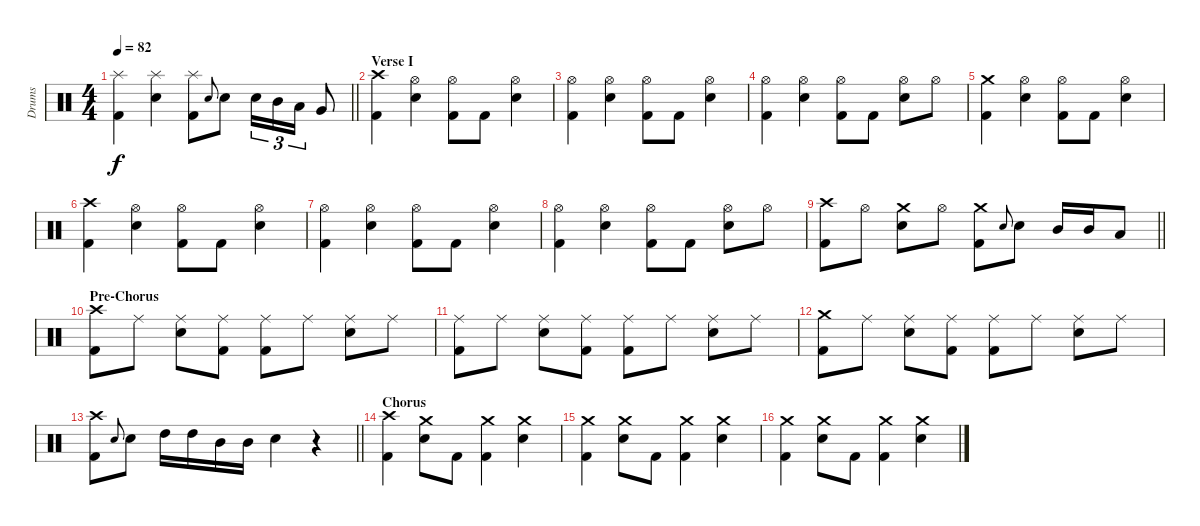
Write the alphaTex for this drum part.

\track ("Drums" "Drums") {instrument percussion}
\staff {score}
\articulation defaults
\ts (4 4)
\tempo 82
\clef neutral
\barLineRight lightlight
\ks c
("Splash (hit)" "Kick (hit) 2").4{dy f} ("Splash (hit)" "Snare (hit) 2").4 ("Splash (hit)" "Kick (hit) 2").8 "Snare (hit) 2".8{gr onbeat} "Snare (hit) 2".8 "Snare (hit) 2".16{tu (3 2)} "Mid Tom (hit)".16{tu (3 2)} "Low Tom (hit)".16{tu (3 2)} "Very Low Tom (hit)".8 |
\section ("" "Verse I")
("Crash high (hit)" "Kick (hit) 2").4 ("Hi-Hat (open)" "Snare (hit) 2").4 ("Hi-Hat (open)" "Kick (hit) 2").8 "Kick (hit) 2".8 ("Hi-Hat (open)" "Snare (hit) 2").4 |
("Hi-Hat (open)" "Kick (hit) 2").4 ("Hi-Hat (open)" "Snare (hit) 2").4 ("Hi-Hat (open)" "Kick (hit) 2").8 "Kick (hit) 2".8 ("Hi-Hat (open)" "Snare (hit) 2").4 |
("Hi-Hat (open)" "Kick (hit) 2").4 ("Hi-Hat (open)" "Snare (hit) 2").4 ("Hi-Hat (open)" "Kick (hit) 2").8 "Kick (hit) 2".8 ("Hi-Hat (open)" "Snare (hit) 2").8 "Hi-Hat (open)".8 |
("Crash medium (hit)" "Kick (hit) 2").4 ("Hi-Hat (open)" "Snare (hit) 2").4 ("Hi-Hat (open)" "Kick (hit) 2").8 "Kick (hit) 2".8 ("Hi-Hat (open)" "Snare (hit) 2").4 |
("Crash high (hit)" "Kick (hit) 2").4 ("Hi-Hat (open)" "Snare (hit) 2").4 ("Hi-Hat (open)" "Kick (hit) 2").8 "Kick (hit) 2".8 ("Hi-Hat (open)" "Snare (hit) 2").4 |
("Hi-Hat (open)" "Kick (hit) 2").4 ("Hi-Hat (open)" "Snare (hit) 2").4 ("Hi-Hat (open)" "Kick (hit) 2").8 "Kick (hit) 2".8 ("Hi-Hat (open)" "Snare (hit) 2").4 |
("Hi-Hat (open)" "Kick (hit) 2").4 ("Hi-Hat (open)" "Snare (hit) 2").4 ("Hi-Hat (open)" "Kick (hit) 2").8 "Kick (hit) 2".8 ("Hi-Hat (open)" "Snare (hit) 2").8 "Hi-Hat (open)".8 |
\barLineRight lightlight
("Crash high (hit)" "Kick (hit) 2").8 "Hi-Hat (open)".8 ("Crash medium (hit)" "Snare (hit) 2").8 "Hi-Hat (open)".8 ("Crash medium (hit)" "Kick (hit) 2").8 "Snare (hit) 2".8{gr onbeat} "Snare (hit) 2".8 "Mid Tom (hit)".16 "Mid Tom (hit)".16 "Low Tom (hit)".8 |
\section ("" "Pre-Chorus")
("Crash high (hit)" "Kick (hit) 2").8 "Ride (middle)".8 ("Ride (middle)" "Snare (hit) 2").8 ("Ride (middle)" "Kick (hit) 2").8 ("Ride (middle)" "Kick (hit) 2").8 "Ride (middle)".8 ("Ride (middle)" "Snare (hit) 2").8 "Ride (middle)".8 |
("Ride (middle)" "Kick (hit) 2").8 "Ride (middle)".8 ("Ride (middle)" "Snare (hit) 2").8 ("Ride (middle)" "Kick (hit) 2").8 ("Ride (middle)" "Kick (hit) 2").8 "Ride (middle)".8 ("Ride (middle)" "Snare (hit) 2").8 "Ride (middle)".8 |
("Crash medium (hit)" "Kick (hit) 2").8 "Ride (middle)".8 ("Ride (middle)" "Snare (hit) 2").8 ("Ride (middle)" "Kick (hit) 2").8 ("Ride (middle)" "Kick (hit) 2").8 "Ride (middle)".8 ("Ride (middle)" "Snare (hit) 2").8 "Ride (middle)".8 |
\barLineRight lightlight
("Crash high (hit)" "Kick (hit) 2").8 "Snare (hit) 2".8{gr onbeat} "Snare (hit) 2".8 "High Tom (hit)".16 "High Tom (hit)".16 "Mid Tom (hit)".16 "Mid Tom (hit)".16 "Snare (hit) 2".4 r.4 |
\section ("" "Chorus")
("Crash high (hit)" "Kick (hit) 2").4 ("Crash medium (hit)" "Snare (hit) 2").8 "Kick (hit) 2".8 ("Crash medium (hit)" "Kick (hit) 2").4 ("Crash medium (hit)" "Snare (hit) 2").4 |
("Crash medium (hit)" "Kick (hit) 2").4 ("Crash medium (hit)" "Snare (hit) 2").8 "Kick (hit) 2".8 ("Crash medium (hit)" "Kick (hit) 2").4 ("Crash medium (hit)" "Snare (hit) 2").4 |
("Crash medium (hit)" "Kick (hit) 2").4 ("Crash medium (hit)" "Snare (hit) 2").8 "Kick (hit) 2".8 ("Crash medium (hit)" "Kick (hit) 2").4 ("Crash medium (hit)" "Snare (hit) 2").4
